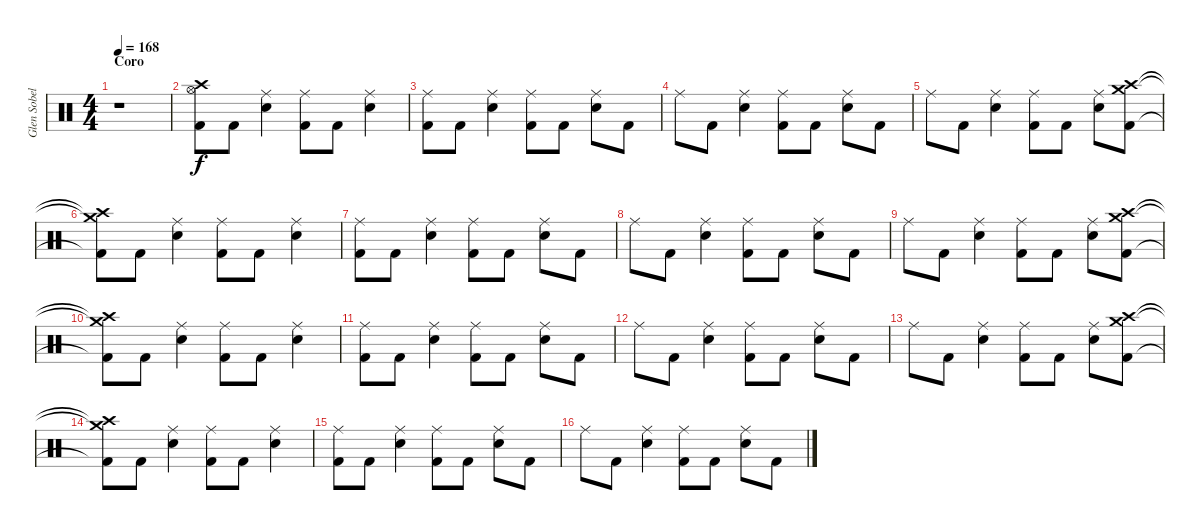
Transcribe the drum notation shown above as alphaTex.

\track ("Glen Sobel" "Glen Sobel") {instrument percussion}
\staff {score}
\articulation defaults
\ts (4 4)
\section ("" "Coro")
\tempo 168
\clef neutral
\ks c
r.1{dy f} |
("Hi-Hat (open)" "Crash high (hit)" "Kick (hit) 2").8 "Kick (hit) 2".8 ("Ride (middle)" "Snare (hit) 2").4 ("Ride (middle)" "Kick (hit) 2").8 "Kick (hit) 2".8 ("Ride (middle)" "Snare (hit) 2").4 |
("Ride (middle)" "Kick (hit) 2").8 "Kick (hit) 2".8 ("Ride (middle)" "Snare (hit) 2").4 ("Ride (middle)" "Kick (hit) 2").8 "Kick (hit) 2".8 ("Ride (middle)" "Snare (hit) 2").8 "Kick (hit) 2".8 |
"Ride (middle)".8 "Kick (hit) 2".8 ("Ride (middle)" "Snare (hit) 2").4 ("Ride (middle)" "Kick (hit) 2").8 "Kick (hit) 2".8 ("Ride (middle)" "Snare (hit) 2").8 "Kick (hit) 2".8 |
"Ride (middle)".8 "Kick (hit) 2".8 ("Ride (middle)" "Snare (hit) 2").4 ("Ride (middle)" "Kick (hit) 2").8 "Kick (hit) 2".8 ("Ride (middle)" "Snare (hit) 2").8 ("Crash medium (hit)" "Crash high (hit)" "Kick (hit) 2").8 |
("Crash medium (hit)"{t} "Crash high (hit)"{t} "Kick (hit) 2"{t}).8 "Kick (hit) 2".8 ("Ride (middle)" "Snare (hit) 2").4 ("Ride (middle)" "Kick (hit) 2").8 "Kick (hit) 2".8 ("Ride (middle)" "Snare (hit) 2").4 |
("Ride (middle)" "Kick (hit) 2").8 "Kick (hit) 2".8 ("Ride (middle)" "Snare (hit) 2").4 ("Ride (middle)" "Kick (hit) 2").8 "Kick (hit) 2".8 ("Ride (middle)" "Snare (hit) 2").8 "Kick (hit) 2".8 |
"Ride (middle)".8 "Kick (hit) 2".8 ("Ride (middle)" "Snare (hit) 2").4 ("Ride (middle)" "Kick (hit) 2").8 "Kick (hit) 2".8 ("Ride (middle)" "Snare (hit) 2").8 "Kick (hit) 2".8 |
"Ride (middle)".8 "Kick (hit) 2".8 ("Ride (middle)" "Snare (hit) 2").4 ("Ride (middle)" "Kick (hit) 2").8 "Kick (hit) 2".8 ("Ride (middle)" "Snare (hit) 2").8 ("Crash medium (hit)" "Crash high (hit)" "Kick (hit) 2").8 |
("Crash medium (hit)"{t} "Crash high (hit)"{t} "Kick (hit) 2"{t}).8 "Kick (hit) 2".8 ("Ride (middle)" "Snare (hit) 2").4 ("Ride (middle)" "Kick (hit) 2").8 "Kick (hit) 2".8 ("Ride (middle)" "Snare (hit) 2").4 |
("Ride (middle)" "Kick (hit) 2").8 "Kick (hit) 2".8 ("Ride (middle)" "Snare (hit) 2").4 ("Ride (middle)" "Kick (hit) 2").8 "Kick (hit) 2".8 ("Ride (middle)" "Snare (hit) 2").8 "Kick (hit) 2".8 |
"Ride (middle)".8 "Kick (hit) 2".8 ("Ride (middle)" "Snare (hit) 2").4 ("Ride (middle)" "Kick (hit) 2").8 "Kick (hit) 2".8 ("Ride (middle)" "Snare (hit) 2").8 "Kick (hit) 2".8 |
"Ride (middle)".8 "Kick (hit) 2".8 ("Ride (middle)" "Snare (hit) 2").4 ("Ride (middle)" "Kick (hit) 2").8 "Kick (hit) 2".8 ("Ride (middle)" "Snare (hit) 2").8 ("Crash medium (hit)" "Crash high (hit)" "Kick (hit) 2").8 |
("Crash medium (hit)"{t} "Crash high (hit)"{t} "Kick (hit) 2"{t}).8 "Kick (hit) 2".8 ("Ride (middle)" "Snare (hit) 2").4 ("Ride (middle)" "Kick (hit) 2").8 "Kick (hit) 2".8 ("Ride (middle)" "Snare (hit) 2").4 |
("Ride (middle)" "Kick (hit) 2").8 "Kick (hit) 2".8 ("Ride (middle)" "Snare (hit) 2").4 ("Ride (middle)" "Kick (hit) 2").8 "Kick (hit) 2".8 ("Ride (middle)" "Snare (hit) 2").8 "Kick (hit) 2".8 |
"Ride (middle)".8 "Kick (hit) 2".8 ("Ride (middle)" "Snare (hit) 2").4 ("Ride (middle)" "Kick (hit) 2").8 "Kick (hit) 2".8 ("Ride (middle)" "Snare (hit) 2").8 "Kick (hit) 2".8
